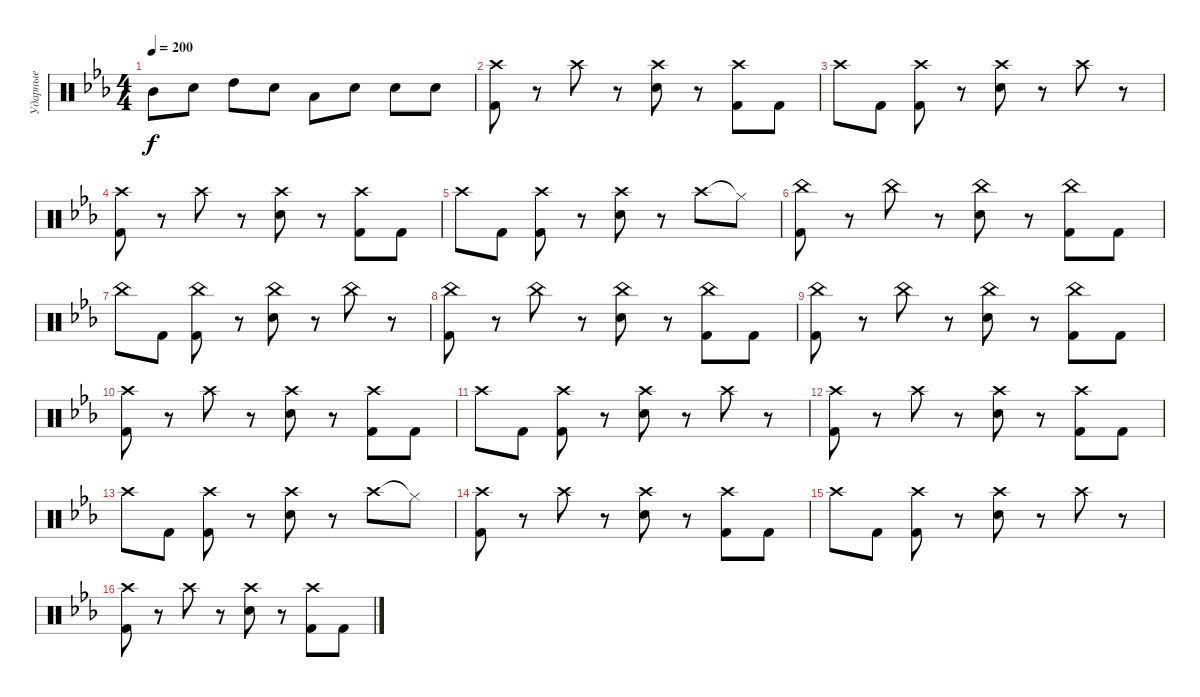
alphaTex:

\track ("Ударные" "Ударные") {instrument percussion}
\staff {score}
\articulation defaults
\ts (4 4)
\tempo 200
\clef neutral
\ks cminor "Mid Tom (hit)".8{dy f} "Electric Snare (hit)".8 "High Tom (hit)".8 "Electric Snare (hit)".8 "Low Tom (hit)".8 "Electric Snare (hit)".8 "Electric Snare (hit)".8 "Electric Snare (hit)".8
|
("Crash high (hit)" "Kick (hit) 2").8 r.8 "Crash high (hit)".8 r.8 ("Crash high (hit)" "Electric Snare (hit)").8 r.8 ("Crash high (hit)" "Kick (hit) 2").8 "Kick (hit) 2".8 |
"Crash high (hit)".8 "Kick (hit) 2".8 ("Crash high (hit)" "Kick (hit) 2").8 r.8 ("Crash high (hit)" "Electric Snare (hit)").8 r.8 "Crash high (hit)".8 r.8 |
("Crash high (hit)" "Kick (hit) 2").8 r.8 "Crash high (hit)".8 r.8 ("Crash high (hit)" "Electric Snare (hit)").8 r.8 ("Crash high (hit)" "Kick (hit) 2").8 "Kick (hit) 2".8 |
"Crash high (hit)".8 "Kick (hit) 2".8 ("Crash high (hit)" "Kick (hit) 2").8 r.8 ("Crash high (hit)" "Electric Snare (hit)").8 r.8 "Crash high (hit)".8 "Hi-Hat (closed)"{t}.8 |
("China (hit)" "Kick (hit) 2").8 r.8 "China (hit)".8 r.8 ("China (hit)" "Electric Snare (hit)").8 r.8 ("China (hit)" "Kick (hit) 2").8 "Kick (hit) 2".8 |
"China (hit)".8 "Kick (hit) 2".8 ("China (hit)" "Kick (hit) 2").8 r.8 ("China (hit)" "Electric Snare (hit)").8 r.8 "China (hit)".8 r.8 |
("China (hit)" "Kick (hit) 2").8 r.8 "China (hit)".8 r.8 ("China (hit)" "Electric Snare (hit)").8 r.8 ("China (hit)" "Kick (hit) 2").8 "Kick (hit) 2".8 |
("China (hit)" "Kick (hit) 2").8 r.8 "China (hit)".8 r.8 ("China (hit)" "Electric Snare (hit)").8 r.8 ("China (hit)" "Kick (hit) 2").8 "Kick (hit) 2".8 |
("Crash high (hit)" "Kick (hit) 2").8 r.8 "Crash high (hit)".8 r.8 ("Crash high (hit)" "Electric Snare (hit)").8 r.8 ("Crash high (hit)" "Kick (hit) 2").8 "Kick (hit) 2".8 |
"Crash high (hit)".8 "Kick (hit) 2".8 ("Crash high (hit)" "Kick (hit) 2").8 r.8 ("Crash high (hit)" "Electric Snare (hit)").8 r.8 "Crash high (hit)".8 r.8 |
("Crash high (hit)" "Kick (hit) 2").8 r.8 "Crash high (hit)".8 r.8 ("Crash high (hit)" "Electric Snare (hit)").8 r.8 ("Crash high (hit)" "Kick (hit) 2").8 "Kick (hit) 2".8 |
"Crash high (hit)".8 "Kick (hit) 2".8 ("Crash high (hit)" "Kick (hit) 2").8 r.8 ("Crash high (hit)" "Electric Snare (hit)").8 r.8 "Crash high (hit)".8 "Hi-Hat (closed)"{t}.8 |
("Crash high (hit)" "Kick (hit) 2").8 r.8 "Crash high (hit)".8 r.8 ("Crash high (hit)" "Electric Snare (hit)").8 r.8 ("Crash high (hit)" "Kick (hit) 2").8 "Kick (hit) 2".8 |
"Crash high (hit)".8 "Kick (hit) 2".8 ("Crash high (hit)" "Kick (hit) 2").8 r.8 ("Crash high (hit)" "Electric Snare (hit)").8 r.8 "Crash high (hit)".8 r.8 |
("Crash high (hit)" "Kick (hit) 2").8 r.8 "Crash high (hit)".8 r.8 ("Crash high (hit)" "Electric Snare (hit)").8 r.8 ("Crash high (hit)" "Kick (hit) 2").8 "Kick (hit) 2".8
